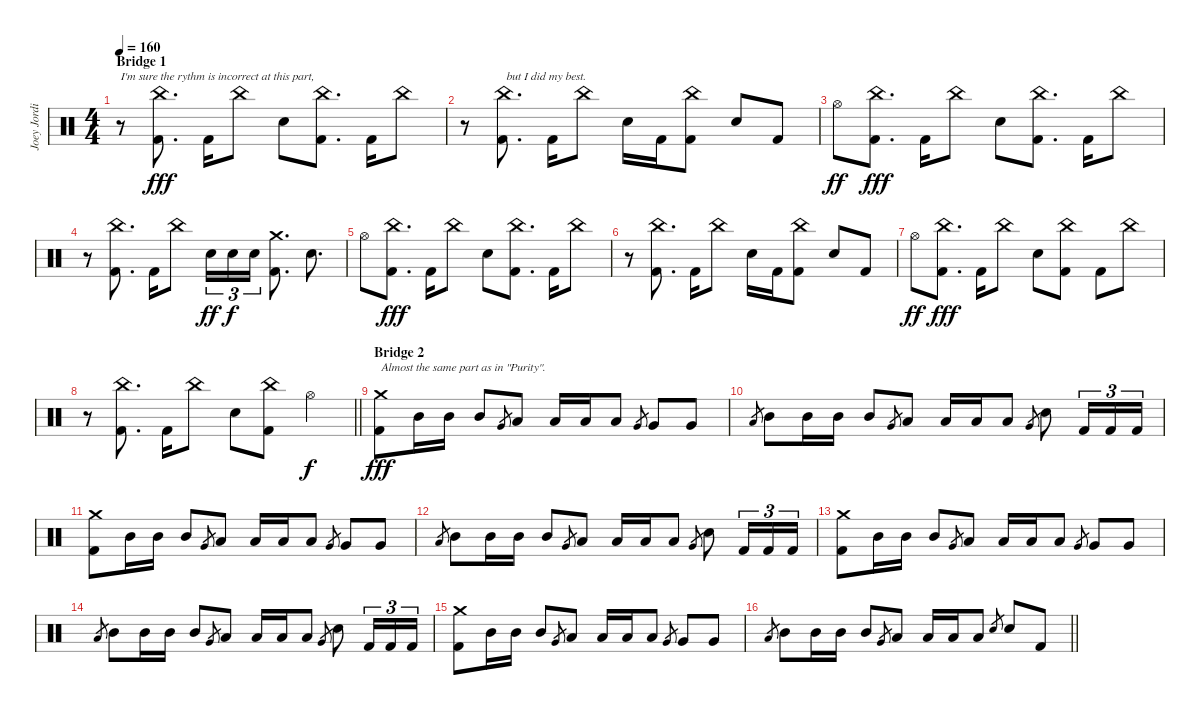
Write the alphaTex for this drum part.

\track ("Joey Jordison" "Joey Jordi") {instrument percussion}
\staff {score}
\articulation defaults
\ts (4 4)
\section ("" "Bridge 1")
\tempo 160
\clef neutral
\ks c
r.8{txt "I'm sure the rythm is incorrect at this part," dy fff} ("China (hit)" "Kick (hit) 2").8{d} "Kick (hit) 2".16 "China (hit)".8 "Electric Snare (hit)".8 ("China (hit)" "Kick (hit) 2").8{d} "Kick (hit) 2".16 "China (hit)".8 |
r.8 ("China (hit)" "Kick (hit) 2").8{d txt "but I did my best."} "Kick (hit) 2".16 "China (hit)".8 "Electric Snare (hit)".16 "Kick (hit) 2".16 ("China (hit)" "Kick (hit) 2").8 "Electric Snare (hit)".8 "Kick (hit) 2".8 |
"Hi-Hat (open)".8{dy ff} ("China (hit)" "Kick (hit) 2").8{d dy fff} "Kick (hit) 2".16 "China (hit)".8 "Electric Snare (hit)".8 ("China (hit)" "Kick (hit) 2").8{d} "Kick (hit) 2".16 "China (hit)".8 |
r.8 ("China (hit)" "Kick (hit) 2").8{d} "Kick (hit) 2".16 "China (hit)".8 "Electric Snare (hit)".16{tu (3 2) dy ff} "Electric Snare (hit)".16{tu (3 2) dy f} "Electric Snare (hit)".16{tu (3 2)} ("Crash medium (hit)" "Kick (hit) 2").8{d} "Electric Snare (hit)".8{d} |
"Hi-Hat (open)".8 ("China (hit)" "Kick (hit) 2").8{d dy fff} "Kick (hit) 2".16 "China (hit)".8 "Electric Snare (hit)".8 ("China (hit)" "Kick (hit) 2").8{d} "Kick (hit) 2".16 "China (hit)".8 |
r.8 ("China (hit)" "Kick (hit) 2").8{d} "Kick (hit) 2".16 "China (hit)".8 "Electric Snare (hit)".16 "Kick (hit) 2".16 ("China (hit)" "Kick (hit) 2").8 "Electric Snare (hit)".8 "Kick (hit) 2".8 |
"Hi-Hat (open)".8{dy ff} ("China (hit)" "Kick (hit) 2").8{d dy fff} "Kick (hit) 2".16 "China (hit)".8 "Electric Snare (hit)".8 ("China (hit)" "Kick (hit) 2").8 "Kick (hit) 2".8 "China (hit)".8 |
\barLineRight lightlight
r.8 ("China (hit)" "Kick (hit) 2").8{d} "Kick (hit) 2".16 "China (hit)".8 "Electric Snare (hit)".8 ("China (hit)" "Kick (hit) 2").8 "Hi-Hat (open)".4{dy f} |
\section ("" "Bridge 2")
("Crash medium (hit)" "Kick (hit) 2").8{txt "Almost the same part as in \"Purity\"." dy fff} "Mid Tom (hit)".16 "Mid Tom (hit)".16 "Mid Tom (hit)".8 "Very Low Tom (hit)".8{gr} "Low Tom (hit)".8 "Low Tom (hit)".16 "Low Tom (hit)".16 "Low Tom (hit)".8 "Very Low Tom (hit)".8{gr} "Very Low Tom (hit)".8 "Very Low Tom (hit)".8 |
"Low Tom (hit)".8{gr} "Mid Tom (hit)".8 "Mid Tom (hit)".16 "Mid Tom (hit)".16 "Mid Tom (hit)".8 "Very Low Tom (hit)".8{gr} "Low Tom (hit)".8 "Low Tom (hit)".16 "Low Tom (hit)".16 "Low Tom (hit)".8 "Very Low Tom (hit)".8{gr} "Electric Snare (hit)".8 "Kick (hit) 2".16{tu (3 2)} "Kick (hit) 2".16{tu (3 2)} "Kick (hit) 2".16{tu (3 2)} |
("Crash medium (hit)" "Kick (hit) 2").8 "Mid Tom (hit)".16 "Mid Tom (hit)".16 "Mid Tom (hit)".8 "Very Low Tom (hit)".8{gr} "Low Tom (hit)".8 "Low Tom (hit)".16 "Low Tom (hit)".16 "Low Tom (hit)".8 "Very Low Tom (hit)".8{gr} "Very Low Tom (hit)".8 "Very Low Tom (hit)".8 |
"Low Tom (hit)".8{gr} "Mid Tom (hit)".8 "Mid Tom (hit)".16 "Mid Tom (hit)".16 "Mid Tom (hit)".8 "Very Low Tom (hit)".8{gr} "Low Tom (hit)".8 "Low Tom (hit)".16 "Low Tom (hit)".16 "Low Tom (hit)".8 "Very Low Tom (hit)".8{gr} "Electric Snare (hit)".8 "Kick (hit) 2".16{tu (3 2)} "Kick (hit) 2".16{tu (3 2)} "Kick (hit) 2".16{tu (3 2)} |
("Crash medium (hit)" "Kick (hit) 2").8 "Mid Tom (hit)".16 "Mid Tom (hit)".16 "Mid Tom (hit)".8 "Very Low Tom (hit)".8{gr} "Low Tom (hit)".8 "Low Tom (hit)".16 "Low Tom (hit)".16 "Low Tom (hit)".8 "Very Low Tom (hit)".8{gr} "Very Low Tom (hit)".8 "Very Low Tom (hit)".8 |
"Low Tom (hit)".8{gr} "Mid Tom (hit)".8 "Mid Tom (hit)".16 "Mid Tom (hit)".16 "Mid Tom (hit)".8 "Very Low Tom (hit)".8{gr} "Low Tom (hit)".8 "Low Tom (hit)".16 "Low Tom (hit)".16 "Low Tom (hit)".8 "Very Low Tom (hit)".8{gr} "Electric Snare (hit)".8 "Kick (hit) 2".16{tu (3 2)} "Kick (hit) 2".16{tu (3 2)} "Kick (hit) 2".16{tu (3 2)} |
("Crash medium (hit)" "Kick (hit) 2").8 "Mid Tom (hit)".16 "Mid Tom (hit)".16 "Mid Tom (hit)".8 "Very Low Tom (hit)".8{gr} "Low Tom (hit)".8 "Low Tom (hit)".16 "Low Tom (hit)".16 "Low Tom (hit)".8 "Very Low Tom (hit)".8{gr} "Very Low Tom (hit)".8 "Very Low Tom (hit)".8 |
\barLineRight lightlight "Low Tom (hit)".8{gr} "Mid Tom (hit)".8 "Mid Tom (hit)".16 "Mid Tom (hit)".16 "Mid Tom (hit)".8 "Very Low Tom (hit)".8{gr} "Low Tom (hit)".8 "Low Tom (hit)".16 "Low Tom (hit)".16 "Low Tom (hit)".8 "Electric Snare (hit)".8{gr} "Electric Snare (hit)".8 "Kick (hit) 2".8
